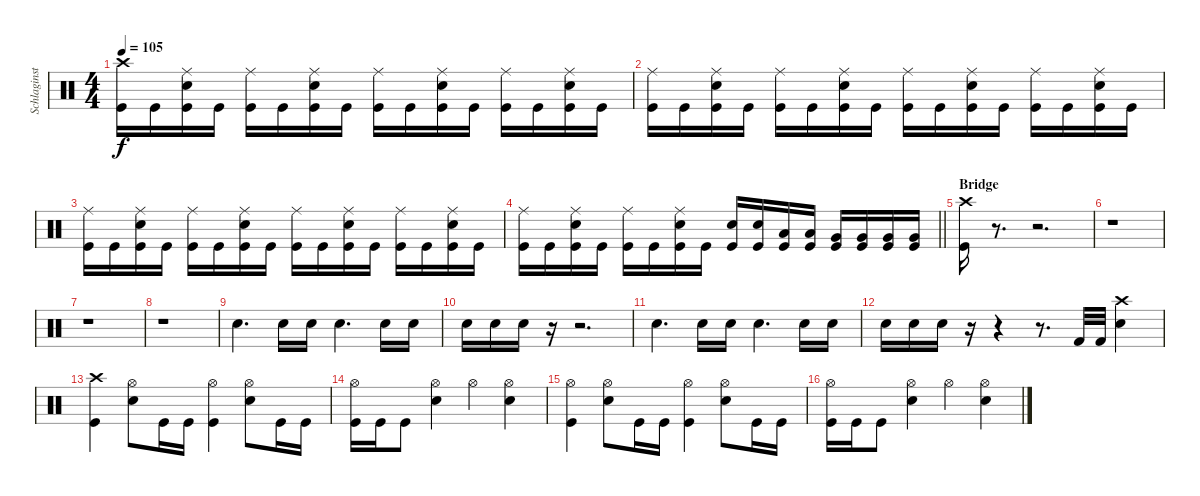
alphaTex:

\track ("Schlaginstrumente - Auswahl" "Schlaginst") {instrument percussion}
\staff {score}
\articulation defaults
\ts (4 4)
\tempo 105
\clef neutral
\ks c
("Kick (hit)" "Crash high (hit)").16{dy f} "Kick (hit)".16 ("Kick (hit)" "Ride (middle)" "Snare (hit) 2").16 "Kick (hit)".16 ("Kick (hit)" "Ride (middle)").16 "Kick (hit)".16 ("Kick (hit)" "Ride (middle)" "Snare (hit) 2").16 "Kick (hit)".16 ("Kick (hit)" "Ride (middle)").16 "Kick (hit)".16 ("Kick (hit)" "Ride (middle)" "Snare (hit) 2").16 "Kick (hit)".16 ("Kick (hit)" "Ride (middle)").16 "Kick (hit)".16 ("Kick (hit)" "Ride (middle)" "Snare (hit) 2").16 "Kick (hit)".16 |
("Kick (hit)" "Ride (middle)").16 "Kick (hit)".16 ("Kick (hit)" "Ride (middle)" "Snare (hit) 2").16 "Kick (hit)".16 ("Kick (hit)" "Ride (middle)").16 "Kick (hit)".16 ("Kick (hit)" "Ride (middle)" "Snare (hit) 2").16 "Kick (hit)".16 ("Kick (hit)" "Ride (middle)").16 "Kick (hit)".16 ("Kick (hit)" "Ride (middle)" "Snare (hit) 2").16 "Kick (hit)".16 ("Kick (hit)" "Ride (middle)").16 "Kick (hit)".16 ("Kick (hit)" "Ride (middle)" "Snare (hit) 2").16 "Kick (hit)".16 |
("Kick (hit)" "Ride (middle)").16 "Kick (hit)".16 ("Kick (hit)" "Ride (middle)" "Snare (hit) 2").16 "Kick (hit)".16 ("Kick (hit)" "Ride (middle)").16 "Kick (hit)".16 ("Kick (hit)" "Ride (middle)" "Snare (hit) 2").16 "Kick (hit)".16 ("Kick (hit)" "Ride (middle)").16 "Kick (hit)".16 ("Kick (hit)" "Ride (middle)" "Snare (hit) 2").16 "Kick (hit)".16 ("Kick (hit)" "Ride (middle)").16 "Kick (hit)".16 ("Kick (hit)" "Ride (middle)" "Snare (hit) 2").16 "Kick (hit)".16 |
\barLineRight lightlight
("Kick (hit)" "Ride (middle)").16 "Kick (hit)".16 ("Kick (hit)" "Ride (middle)" "Snare (hit) 2").16 "Kick (hit)".16 ("Kick (hit)" "Ride (middle)").16 "Kick (hit)".16 ("Kick (hit)" "Ride (middle)" "Snare (hit) 2").16 "Kick (hit)".16 ("Kick (hit)" "Snare (hit) 2").16 ("Kick (hit)" "Snare (hit) 2").16 ("Kick (hit)" "Low Tom (hit)").16 ("Kick (hit)" "Low Tom (hit)").16 ("Kick (hit)" "Very Low Tom (hit)").16 ("Kick (hit)" "Very Low Tom (hit)").16 ("Kick (hit)" "Very Low Tom (hit)").16 ("Kick (hit)" "Very Low Tom (hit)").16 |
\section ("" "Bridge")
("Crash high (hit)" "Kick (hit)").16 r.8{d} r.2{d} |
r.1 |
r.1 |
r.1 |
"Snare (hit) 2".4{d} "Snare (hit) 2".16 "Snare (hit) 2".16 "Snare (hit) 2".4{d} "Snare (hit) 2".16 "Snare (hit) 2".16 |
"Snare (hit) 2".16 "Snare (hit) 2".16 "Snare (hit) 2".16 r.16 r.2{d} |
"Snare (hit) 2".4{d} "Snare (hit) 2".16 "Snare (hit) 2".16 "Snare (hit) 2".4{d} "Snare (hit) 2".16 "Snare (hit) 2".16 |
"Snare (hit) 2".16 "Snare (hit) 2".16 "Snare (hit) 2".16 r.16 r.4 r.8{d} "Kick (hit) 2".32 "Kick (hit) 2".32 ("Snare (hit) 2" "Crash high (hit)").4 |
("Kick (hit)" "Crash high (hit)").4 ("Hi-Hat (open)" "Snare (hit) 2").8 "Kick (hit)".16 "Kick (hit)".16 ("Hi-Hat (open)" "Kick (hit)").4 ("Hi-Hat (open)" "Snare (hit) 2").8 "Kick (hit)".16 "Kick (hit)".16 |
("Kick (hit)" "Hi-Hat (open)").16 "Kick (hit)".16 "Kick (hit)".8 ("Hi-Hat (open)" "Snare (hit) 2").4 "Hi-Hat (open)".4 ("Hi-Hat (open)" "Snare (hit) 2").4 |
("Kick (hit)" "Hi-Hat (open)").4 ("Hi-Hat (open)" "Snare (hit) 2").8 "Kick (hit)".16 "Kick (hit)".16 ("Hi-Hat (open)" "Kick (hit)").4 ("Hi-Hat (open)" "Snare (hit) 2").8 "Kick (hit)".16 "Kick (hit)".16 |
("Kick (hit)" "Hi-Hat (open)").16 "Kick (hit)".16 "Kick (hit)".8 ("Hi-Hat (open)" "Snare (hit) 2").4 "Hi-Hat (open)".4 ("Hi-Hat (open)" "Snare (hit) 2").4
